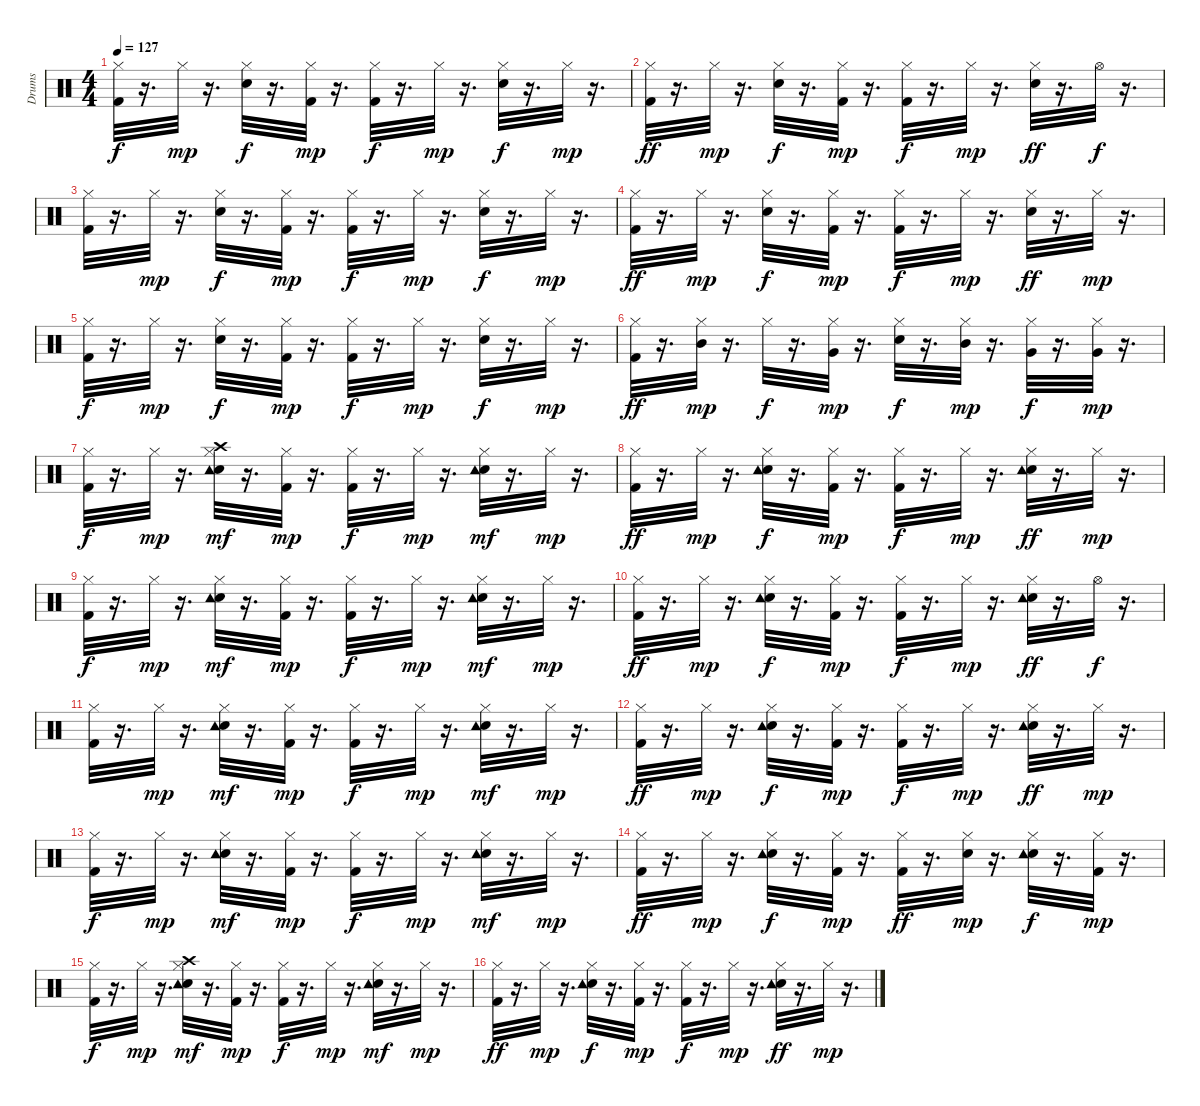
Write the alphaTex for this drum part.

\track ("Drums               " "Drums     ") {instrument percussion}
\staff {score}
\articulation defaults
\ts (4 4)
\tempo 127
\clef neutral
\ks c
("Kick (hit) 2" "Hi-Hat (closed)").32{dy f} r.16{d} "Hi-Hat (closed)".32{dy mp} r.16{d} ("Hi-Hat (closed)" "Snare (hit) 2").32{dy f} r.16{d} ("Kick (hit) 2" "Hi-Hat (closed)").32{dy mp} r.16{d} ("Kick (hit) 2" "Hi-Hat (closed)").32{dy f} r.16{d} "Hi-Hat (closed)".32{dy mp} r.16{d} ("Snare (hit) 2" "Hi-Hat (closed)").32{dy f} r.16{d} "Hi-Hat (closed)".32{dy mp} r.16{d} |
("Kick (hit) 2" "Hi-Hat (closed)").32{dy ff} r.16{d} "Hi-Hat (closed)".32{dy mp} r.16{d} ("Snare (hit) 2" "Hi-Hat (closed)").32{dy f} r.16{d} ("Kick (hit) 2" "Hi-Hat (closed)").32{dy mp} r.16{d} ("Kick (hit) 2" "Hi-Hat (closed)").32{dy f} r.16{d} "Hi-Hat (closed)".32{dy mp} r.16{d} ("Snare (hit) 2" "Hi-Hat (closed)").32{dy ff} r.16{d} "Hi-Hat (open)".32{dy f} r.16{d} |
("Kick (hit) 2" "Hi-Hat (closed)").32 r.16{d} "Hi-Hat (closed)".32{dy mp} r.16{d} ("Snare (hit) 2" "Hi-Hat (closed)").32{dy f} r.16{d} ("Kick (hit) 2" "Hi-Hat (closed)").32{dy mp} r.16{d} ("Kick (hit) 2" "Hi-Hat (closed)").32{dy f} r.16{d} "Hi-Hat (closed)".32{dy mp} r.16{d} ("Snare (hit) 2" "Hi-Hat (closed)").32{dy f} r.16{d} "Hi-Hat (closed)".32{dy mp} r.16{d} |
("Hi-Hat (closed)" "Kick (hit) 2").32{dy ff} r.16{d} "Hi-Hat (closed)".32{dy mp} r.16{d} ("Snare (hit) 2" "Hi-Hat (closed)").32{dy f} r.16{d} ("Kick (hit) 2" "Hi-Hat (closed)").32{dy mp} r.16{d} ("Kick (hit) 2" "Hi-Hat (closed)").32{dy f} r.16{d} "Hi-Hat (closed)".32{dy mp} r.16{d} ("Snare (hit) 2" "Hi-Hat (closed)").32{dy ff} r.16{d} "Hi-Hat (closed)".32{dy mp} r.16{d} |
("Kick (hit) 2" "Hi-Hat (closed)").32{dy f} r.16{d} "Hi-Hat (closed)".32{dy mp} r.16{d} ("Snare (hit) 2" "Hi-Hat (closed)").32{dy f} r.16{d} ("Hi-Hat (closed)" "Kick (hit) 2").32{dy mp} r.16{d} ("Kick (hit) 2" "Hi-Hat (closed)").32{dy f} r.16{d} "Hi-Hat (closed)".32{dy mp} r.16{d} ("Snare (hit) 2" "Hi-Hat (closed)").32{dy f} r.16{d} "Hi-Hat (closed)".32{dy mp} r.16{d} |
("Kick (hit) 2" "Hi-Hat (closed)").32{dy ff} r.16{d} ("Mid Tom (hit)" "Hi-Hat (closed)").32{dy mp} r.16{d} "Hi-Hat (closed)".32{dy f} r.16{d} ("Hi-Hat (closed)" "Very Low Tom (hit)").32{dy mp} r.16{d} ("Snare (hit) 2" "Hi-Hat (closed)").32{dy f} r.16{d} ("Hi-Hat (closed)" "Mid Tom (hit)").32{dy mp} r.16{d} ("Hi-Hat (closed)" "Very Low Tom (hit)").32{dy f} r.16{d} ("Very Low Tom (hit)" "Hi-Hat (closed)").32{dy mp} r.16{d} |
("Kick (hit) 2" "Hi-Hat (closed)").32{dy f} r.16{d} "Hi-Hat (closed)".32{dy mp} r.16{d} ("Snare (hit) 2" "Crash high (hit)" "Tambourine (hit)" "Hi-Hat (closed)").32{dy mf} r.16{d} ("Kick (hit) 2" "Hi-Hat (closed)").32{dy mp} r.16{d} ("Kick (hit) 2" "Hi-Hat (closed)").32{dy f} r.16{d} "Hi-Hat (closed)".32{dy mp} r.16{d} ("Snare (hit) 2" "Hi-Hat (closed)" "Tambourine (hit)").32{dy mf} r.16{d} "Hi-Hat (closed)".32{dy mp} r.16{d} |
("Kick (hit) 2" "Hi-Hat (closed)").32{dy ff} r.16{d} "Hi-Hat (closed)".32{dy mp} r.16{d} ("Snare (hit) 2" "Tambourine (hit)" "Hi-Hat (closed)").32{dy f} r.16{d} ("Kick (hit) 2" "Hi-Hat (closed)").32{dy mp} r.16{d} ("Kick (hit) 2" "Hi-Hat (closed)").32{dy f} r.16{d} "Hi-Hat (closed)".32{dy mp} r.16{d} ("Snare (hit) 2" "Tambourine (hit)" "Hi-Hat (closed)").32{dy ff} r.16{d} "Hi-Hat (closed)".32{dy mp} r.16{d} |
("Kick (hit) 2" "Hi-Hat (closed)").32{dy f} r.16{d} "Hi-Hat (closed)".32{dy mp} r.16{d} ("Snare (hit) 2" "Tambourine (hit)" "Hi-Hat (closed)").32{dy mf} r.16{d} ("Kick (hit) 2" "Hi-Hat (closed)").32{dy mp} r.16{d} ("Hi-Hat (closed)" "Kick (hit) 2").32{dy f} r.16{d} "Hi-Hat (closed)".32{dy mp} r.16{d} ("Snare (hit) 2" "Tambourine (hit)" "Hi-Hat (closed)").32{dy mf} r.16{d} "Hi-Hat (closed)".32{dy mp} r.16{d} |
("Kick (hit) 2" "Hi-Hat (closed)").32{dy ff} r.16{d} "Hi-Hat (closed)".32{dy mp} r.16{d} ("Snare (hit) 2" "Tambourine (hit)" "Hi-Hat (closed)").32{dy f} r.16{d} ("Kick (hit) 2" "Hi-Hat (closed)").32{dy mp} r.16{d} ("Kick (hit) 2" "Hi-Hat (closed)").32{dy f} r.16{d} "Hi-Hat (closed)".32{dy mp} r.16{d} ("Snare (hit) 2" "Hi-Hat (closed)" "Tambourine (hit)").32{dy ff} r.16{d} "Hi-Hat (open)".32{dy f} r.16{d} |
("Kick (hit) 2" "Hi-Hat (closed)").32 r.16{d} "Hi-Hat (closed)".32{dy mp} r.16{d} ("Snare (hit) 2" "Hi-Hat (closed)" "Tambourine (hit)").32{dy mf} r.16{d} ("Kick (hit) 2" "Hi-Hat (closed)").32{dy mp} r.16{d} ("Kick (hit) 2" "Hi-Hat (closed)").32{dy f} r.16{d} "Hi-Hat (closed)".32{dy mp} r.16{d} ("Snare (hit) 2" "Tambourine (hit)" "Hi-Hat (closed)").32{dy mf} r.16{d} "Hi-Hat (closed)".32{dy mp} r.16{d} |
("Kick (hit) 2" "Hi-Hat (closed)").32{dy ff} r.16{d} "Hi-Hat (closed)".32{dy mp} r.16{d} ("Hi-Hat (closed)" "Snare (hit) 2" "Tambourine (hit)").32{dy f} r.16{d} ("Kick (hit) 2" "Hi-Hat (closed)").32{dy mp} r.16{d} ("Kick (hit) 2" "Hi-Hat (closed)").32{dy f} r.16{d} "Hi-Hat (closed)".32{dy mp} r.16{d} ("Snare (hit) 2" "Tambourine (hit)" "Hi-Hat (closed)").32{dy ff} r.16{d} "Hi-Hat (closed)".32{dy mp} r.16{d} |
("Kick (hit) 2" "Hi-Hat (closed)").32{dy f} r.16{d} "Hi-Hat (closed)".32{dy mp} r.16{d} ("Snare (hit) 2" "Hi-Hat (closed)" "Tambourine (hit)").32{dy mf} r.16{d} ("Kick (hit) 2" "Hi-Hat (closed)").32{dy mp} r.16{d} ("Kick (hit) 2" "Hi-Hat (closed)").32{dy f} r.16{d} "Hi-Hat (closed)".32{dy mp} r.16{d} ("Snare (hit) 2" "Tambourine (hit)" "Hi-Hat (closed)").32{dy mf} r.16{d} "Hi-Hat (closed)".32{dy mp} r.16{d} |
("Kick (hit) 2" "Hi-Hat (closed)").32{dy ff} r.16{d} "Hi-Hat (closed)".32{dy mp} r.16{d} ("Snare (hit) 2" "Tambourine (hit)" "Hi-Hat (closed)").32{dy f} r.16{d} ("Kick (hit) 2" "Hi-Hat (closed)").32{dy mp} r.16{d} ("Kick (hit) 2" "Hi-Hat (closed)").32{dy ff} r.16{d} ("Snare (hit) 2" "Hi-Hat (closed)").32{dy mp} r.16{d} ("Snare (hit) 2" "Tambourine (hit)" "Hi-Hat (closed)").32{dy f} r.16{d} ("Kick (hit) 2" "Hi-Hat (closed)").32{dy mp} r.16{d} |
("Hi-Hat (closed)" "Kick (hit) 2").32{dy f} r.16{d} "Hi-Hat (closed)".32{dy mp} r.16{d} ("Snare (hit) 2" "Crash high (hit)" "Tambourine (hit)" "Hi-Hat (closed)").32{dy mf} r.16{d} ("Kick (hit) 2" "Hi-Hat (closed)").32{dy mp} r.16{d} ("Kick (hit) 2" "Hi-Hat (closed)").32{dy f} r.16{d} "Hi-Hat (closed)".32{dy mp} r.16{d} ("Snare (hit) 2" "Tambourine (hit)" "Hi-Hat (closed)").32{dy mf} r.16{d} "Hi-Hat (closed)".32{dy mp} r.16{d} |
("Kick (hit) 2" "Hi-Hat (closed)").32{dy ff} r.16{d} "Hi-Hat (closed)".32{dy mp} r.16{d} ("Snare (hit) 2" "Hi-Hat (closed)" "Tambourine (hit)").32{dy f} r.16{d} ("Hi-Hat (closed)" "Kick (hit) 2").32{dy mp} r.16{d} ("Kick (hit) 2" "Hi-Hat (closed)").32{dy f} r.16{d} "Hi-Hat (closed)".32{dy mp} r.16{d} ("Snare (hit) 2" "Hi-Hat (closed)" "Tambourine (hit)").32{dy ff} r.16{d} "Hi-Hat (closed)".32{dy mp} r.16{d}
